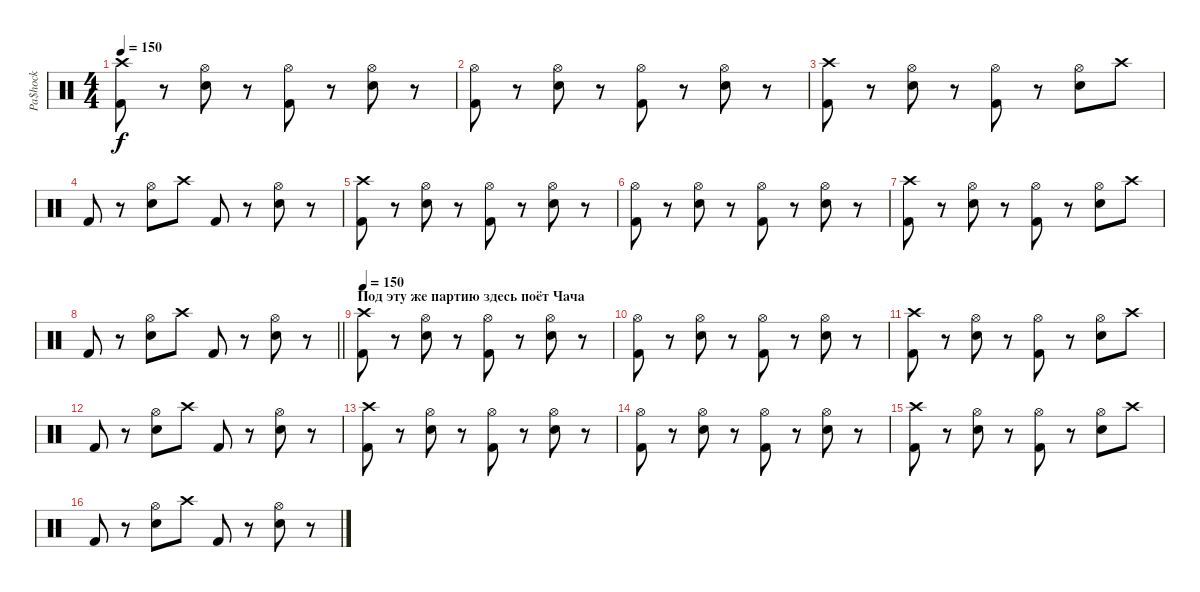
\track ("Pa$hock" "Pa$hock") {instrument percussion}
\staff {score}
\articulation defaults
\ts (4 4)
\tempo 150
\clef neutral
\ks c
("Crash high (hit)" "Kick (hit) 2").8{dy f} r.8 ("Hi-Hat (open)" "Snare (hit) 2").8 r.8 ("Hi-Hat (open)" "Kick (hit) 2").8 r.8 ("Hi-Hat (open)" "Snare (hit) 2").8 r.8 |
("Hi-Hat (open)" "Kick (hit) 2").8 r.8 ("Hi-Hat (open)" "Snare (hit) 2").8 r.8 ("Hi-Hat (open)" "Kick (hit) 2").8 r.8 ("Hi-Hat (open)" "Snare (hit) 2").8 r.8 |
("Crash high (hit)" "Kick (hit) 2").8 r.8 ("Hi-Hat (open)" "Snare (hit) 2").8 r.8 ("Hi-Hat (open)" "Kick (hit) 2").8 r.8 ("Hi-Hat (open)" "Snare (hit) 2").8 "Crash high (hit)".8 |
"Kick (hit) 2".8 r.8 ("Hi-Hat (open)" "Snare (hit) 2").8 "Crash high (hit)".8 "Kick (hit) 2".8 r.8 ("Hi-Hat (open)" "Snare (hit) 2").8 r.8 |
("Crash high (hit)" "Kick (hit) 2").8 r.8 ("Hi-Hat (open)" "Snare (hit) 2").8 r.8 ("Hi-Hat (open)" "Kick (hit) 2").8 r.8 ("Hi-Hat (open)" "Snare (hit) 2").8 r.8 |
("Hi-Hat (open)" "Kick (hit) 2").8 r.8 ("Hi-Hat (open)" "Snare (hit) 2").8 r.8 ("Hi-Hat (open)" "Kick (hit) 2").8 r.8 ("Hi-Hat (open)" "Snare (hit) 2").8 r.8 |
("Crash high (hit)" "Kick (hit) 2").8 r.8 ("Hi-Hat (open)" "Snare (hit) 2").8 r.8 ("Hi-Hat (open)" "Kick (hit) 2").8 r.8 ("Hi-Hat (open)" "Snare (hit) 2").8 "Crash high (hit)".8 |
\barLineRight lightlight "Kick (hit) 2".8
r.8 ("Hi-Hat (open)" "Snare (hit) 2").8 "Crash high (hit)".8 "Kick (hit) 2".8 r.8 ("Hi-Hat (open)" "Snare (hit) 2").8 r.8 |
\section ("" "Под эту же партию здесь поёт Чача")
\tempo 150
("Crash high (hit)" "Kick (hit) 2").8 r.8 ("Hi-Hat (open)" "Snare (hit) 2").8 r.8 ("Hi-Hat (open)" "Kick (hit) 2").8 r.8 ("Hi-Hat (open)" "Snare (hit) 2").8 r.8 |
("Hi-Hat (open)" "Kick (hit) 2").8 r.8 ("Hi-Hat (open)" "Snare (hit) 2").8 r.8 ("Hi-Hat (open)" "Kick (hit) 2").8 r.8 ("Hi-Hat (open)" "Snare (hit) 2").8 r.8 |
("Crash high (hit)" "Kick (hit) 2").8 r.8 ("Hi-Hat (open)" "Snare (hit) 2").8 r.8 ("Hi-Hat (open)" "Kick (hit) 2").8 r.8 ("Hi-Hat (open)" "Snare (hit) 2").8 "Crash high (hit)".8 |
"Kick (hit) 2".8 r.8 ("Hi-Hat (open)" "Snare (hit) 2").8 "Crash high (hit)".8 "Kick (hit) 2".8 r.8 ("Hi-Hat (open)" "Snare (hit) 2").8 r.8 |
("Crash high (hit)" "Kick (hit) 2").8 r.8 ("Hi-Hat (open)" "Snare (hit) 2").8 r.8 ("Hi-Hat (open)" "Kick (hit) 2").8 r.8 ("Hi-Hat (open)" "Snare (hit) 2").8 r.8 |
("Hi-Hat (open)" "Kick (hit) 2").8 r.8 ("Hi-Hat (open)" "Snare (hit) 2").8 r.8 ("Hi-Hat (open)" "Kick (hit) 2").8 r.8 ("Hi-Hat (open)" "Snare (hit) 2").8 r.8 |
("Crash high (hit)" "Kick (hit) 2").8 r.8 ("Hi-Hat (open)" "Snare (hit) 2").8 r.8 ("Hi-Hat (open)" "Kick (hit) 2").8 r.8 ("Hi-Hat (open)" "Snare (hit) 2").8 "Crash high (hit)".8 |
"Kick (hit) 2".8 r.8 ("Hi-Hat (open)" "Snare (hit) 2").8 "Crash high (hit)".8 "Kick (hit) 2".8 r.8 ("Hi-Hat (open)" "Snare (hit) 2").8 r.8
